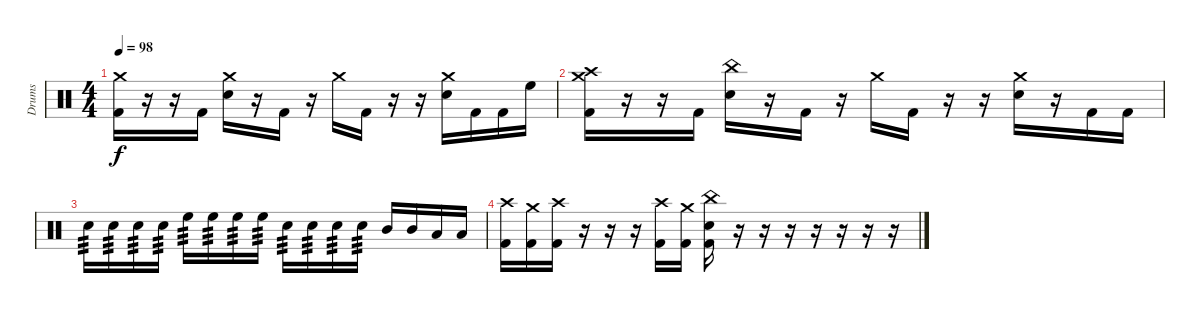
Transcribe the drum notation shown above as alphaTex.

\track ("Drums" "Drums") {instrument percussion}
\staff {score}
\articulation defaults
\ts (4 4)
\tempo 98
\clef neutral
\ks c
("Crash medium (hit)" "Kick (hit) 2").16{dy f} r.16 r.16 "Kick (hit) 2".16 ("Crash medium (hit)" "Electric Snare (hit)").16 r.16 "Kick (hit) 2".16 r.16 "Crash medium (hit)".16 "Kick (hit) 2".16 r.16 r.16 ("Crash medium (hit)" "Electric Snare (hit)").16 "Kick (hit) 2".16 "Kick (hit) 2".16 "High Floor Tom (hit)".16 |
("Crash medium (hit)" "Crash high (hit)" "Kick (hit) 2").16 r.16 r.16 "Kick (hit) 2".16 ("China (hit)" "Electric Snare (hit)").16 r.16 "Kick (hit) 2".16 r.16 "Crash medium (hit)".16 "Kick (hit) 2".16 r.16 r.16 ("Crash medium (hit)" "Electric Snare (hit)").16 r.16 "Kick (hit) 2".16 "Kick (hit) 2".16 |
"Electric Snare (hit)".16{tp 3} "Electric Snare (hit)".16{tp 3} "Electric Snare (hit)".16{tp 3} "Electric Snare (hit)".16{tp 3} "High Floor Tom (hit)".16{tp 3} "High Floor Tom (hit)".16{tp 3} "High Floor Tom (hit)".16{tp 3} "High Floor Tom (hit)".16{tp 3} "Electric Snare (hit)".16{tp 3} "Electric Snare (hit)".16{tp 3} "Electric Snare (hit)".16{tp 3} "Electric Snare (hit)".16{tp 3} "Mid Tom (hit)".16 "Mid Tom (hit)".16 "Low Tom (hit)".16 "Low Tom (hit)".16 |
("Crash high (hit)" "Kick (hit) 2").16 ("Crash medium (hit)" "Kick (hit) 2").16 ("Crash high (hit)" "Kick (hit) 2").16 r.16 r.16 r.16 ("Crash high (hit)" "Kick (hit) 2").16 ("Crash medium (hit)" "Kick (hit) 2").16 ("China (hit)" "Electric Snare (hit)" "Kick (hit) 2").16 r.16 r.16 r.16 r.16 r.16 r.16 r.16
